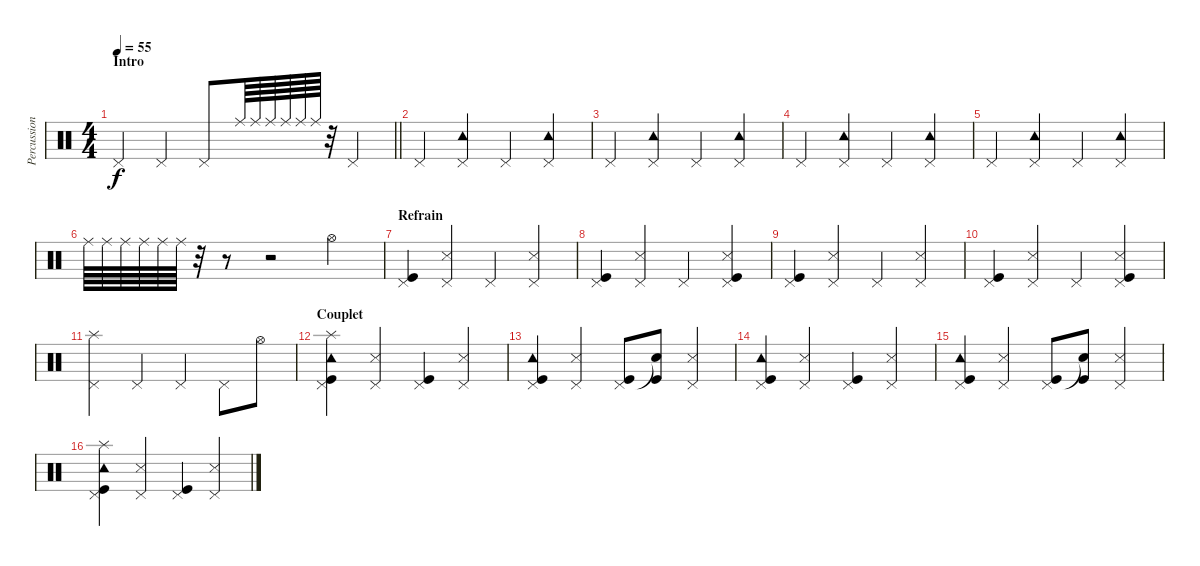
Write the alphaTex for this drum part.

\track ("Percussions" "Percussion") {instrument percussion}
\staff {score}
\articulation defaults
\ts (4 4)
\section ("" "Intro")
\tempo 55
\clef neutral
\barLineRight lightlight
\ks c "Pedal Hi-Hat (hit)".4{dy f} "Pedal Hi-Hat (hit)".4 "Pedal Hi-Hat (hit)".8 "Ride (middle)".64 "Ride (middle)".64 "Ride (middle)".64 "Ride (middle)".64 "Ride (middle)".64 "Ride (middle)".64
r.32 "Pedal Hi-Hat (hit)".4 |
"Pedal Hi-Hat (hit)".4 ("Pedal Hi-Hat (hit)" "Tambourine (hit)").4 "Pedal Hi-Hat (hit)".4 ("Pedal Hi-Hat (hit)" "Tambourine (hit)").4 |
"Pedal Hi-Hat (hit)".4 ("Pedal Hi-Hat (hit)" "Tambourine (hit)").4 "Pedal Hi-Hat (hit)".4 ("Pedal Hi-Hat (hit)" "Tambourine (hit)").4 |
"Pedal Hi-Hat (hit)".4 ("Pedal Hi-Hat (hit)" "Tambourine (hit)").4 "Pedal Hi-Hat (hit)".4 ("Pedal Hi-Hat (hit)" "Tambourine (hit)").4 |
"Pedal Hi-Hat (hit)".4 ("Pedal Hi-Hat (hit)" "Tambourine (hit)").4 "Pedal Hi-Hat (hit)".4 ("Pedal Hi-Hat (hit)" "Tambourine (hit)").4 |
"Ride (middle)".64 "Ride (middle)".64 "Ride (middle)".64 "Ride (middle)".64 "Ride (middle)".64 "Ride (middle)".64 r.32 r.8 r.2 "Hi-Hat (open)".4 |
\section ("" "Refrain")
("Pedal Hi-Hat (hit)" "Kick (hit)").4 ("Pedal Hi-Hat (hit)" "Snare (side stick) 3").4 "Pedal Hi-Hat (hit)".4 ("Pedal Hi-Hat (hit)" "Snare (side stick) 3").4 |
("Pedal Hi-Hat (hit)" "Kick (hit)").4 ("Pedal Hi-Hat (hit)" "Snare (side stick) 3").4 "Pedal Hi-Hat (hit)".4 ("Pedal Hi-Hat (hit)" "Snare (side stick) 3" "Kick (hit)").4 |
("Pedal Hi-Hat (hit)" "Kick (hit)").4 ("Pedal Hi-Hat (hit)" "Snare (side stick) 3").4 "Pedal Hi-Hat (hit)".4 ("Pedal Hi-Hat (hit)" "Snare (side stick) 3").4 |
("Pedal Hi-Hat (hit)" "Kick (hit)").4 ("Pedal Hi-Hat (hit)" "Snare (side stick) 3").4 "Pedal Hi-Hat (hit)".4 ("Pedal Hi-Hat (hit)" "Snare (side stick) 3" "Kick (hit)").4 |
("Pedal Hi-Hat (hit)" "Splash (hit)").4 "Pedal Hi-Hat (hit)".4 "Pedal Hi-Hat (hit)".4 "Pedal Hi-Hat (hit)".8 "Hi-Hat (open)".8 |
\section ("" "Couplet")
("Pedal Hi-Hat (hit)" "Splash (hit)" "Tambourine (hit)" "Kick (hit)").4 ("Pedal Hi-Hat (hit)" "Snare (side stick) 3").4 ("Pedal Hi-Hat (hit)" "Kick (hit)").4 ("Pedal Hi-Hat (hit)" "Snare (side stick) 3").4 |
("Pedal Hi-Hat (hit)" "Tambourine (hit)" "Kick (hit)").4 ("Pedal Hi-Hat (hit)" "Snare (side stick) 3").4 ("Pedal Hi-Hat (hit)" "Kick (hit)").8 ("Snare (hit)"{t} "Kick (hit)").8 ("Pedal Hi-Hat (hit)" "Snare (side stick) 3").4 |
("Pedal Hi-Hat (hit)" "Tambourine (hit)" "Kick (hit)").4 ("Pedal Hi-Hat (hit)" "Snare (side stick) 3").4 ("Pedal Hi-Hat (hit)" "Kick (hit)").4 ("Pedal Hi-Hat (hit)" "Snare (side stick) 3").4 |
("Pedal Hi-Hat (hit)" "Tambourine (hit)" "Kick (hit)").4 ("Pedal Hi-Hat (hit)" "Snare (side stick) 3").4 ("Pedal Hi-Hat (hit)" "Kick (hit)").8 ("Snare (hit)"{t} "Kick (hit)").8 ("Pedal Hi-Hat (hit)" "Snare (side stick) 3").4 |
("Pedal Hi-Hat (hit)" "Splash (hit)" "Tambourine (hit)" "Kick (hit)").4 ("Pedal Hi-Hat (hit)" "Snare (side stick) 3").4 ("Pedal Hi-Hat (hit)" "Kick (hit)").4 ("Pedal Hi-Hat (hit)" "Snare (side stick) 3").4
